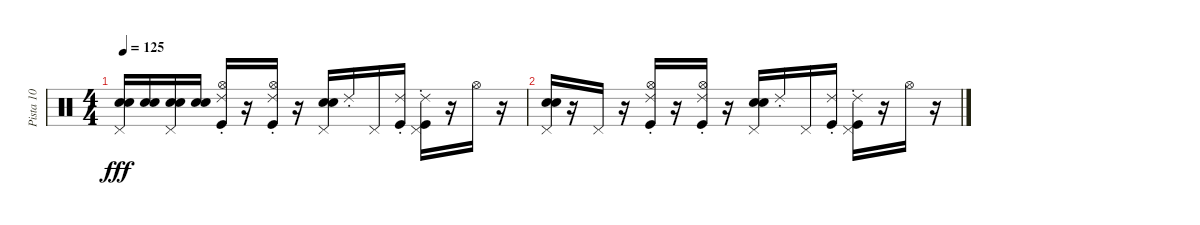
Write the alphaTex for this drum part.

\track ("Pista 10" "Pista 10") {instrument percussion}
\staff {score}
\articulation defaults
\ts (4 4)
\tempo 125
\clef neutral
\ks c
("Pedal Hi-Hat (hit)" "Hand Clap (hit)" "Electric Snare (hit)").16{dy fff volume 5} ("Electric Snare (hit)" "Hand Clap (hit)").16{volume 5} ("Pedal Hi-Hat (hit)" "Hand Clap (hit)" "Electric Snare (hit)").16{volume 5} ("Hand Clap (hit)" "Electric Snare (hit)").16{volume 5} ("Kick (hit)" "Hi-Hat (open)" "Ride (choke) 2").16{volume 4} r.16 ("Hi-Hat (open)" "Kick (hit)" "Ride (choke) 2").16{volume 4} r.16 ("Hand Clap (hit)" "Pedal Hi-Hat (hit)" "Electric Snare (hit)").16{volume 4} "Ride (choke) 2".16{volume 4} "Pedal Hi-Hat (hit)".16{volume 4} ("Ride (choke) 2" "Kick (hit)").16{volume 3} ("Pedal Hi-Hat (hit)" "Ride (choke) 2" "Kick (hit)").16{volume 3} r.16 "Hi-Hat (open)".16{volume 3} r.16 |
("Electric Snare (hit)" "Hand Clap (hit)" "Pedal Hi-Hat (hit)").16{volume 2} r.16 "Pedal Hi-Hat (hit)".16{volume 2} r.16 ("Hi-Hat (open)" "Kick (hit)" "Ride (choke) 2").16{volume 2} r.16 ("Hi-Hat (open)" "Ride (choke) 2" "Kick (hit)").16{volume 2} r.16 ("Electric Snare (hit)" "Pedal Hi-Hat (hit)" "Hand Clap (hit)").16{volume 1} "Ride (choke) 2".16{volume 1} "Pedal Hi-Hat (hit)".16{volume 1} ("Kick (hit)" "Ride (choke) 2").16{volume 1} ("Kick (hit)" "Ride (choke) 2" "Pedal Hi-Hat (hit)").16{volume 1} r.16 "Hi-Hat (open)".16{volume 0} r.16
